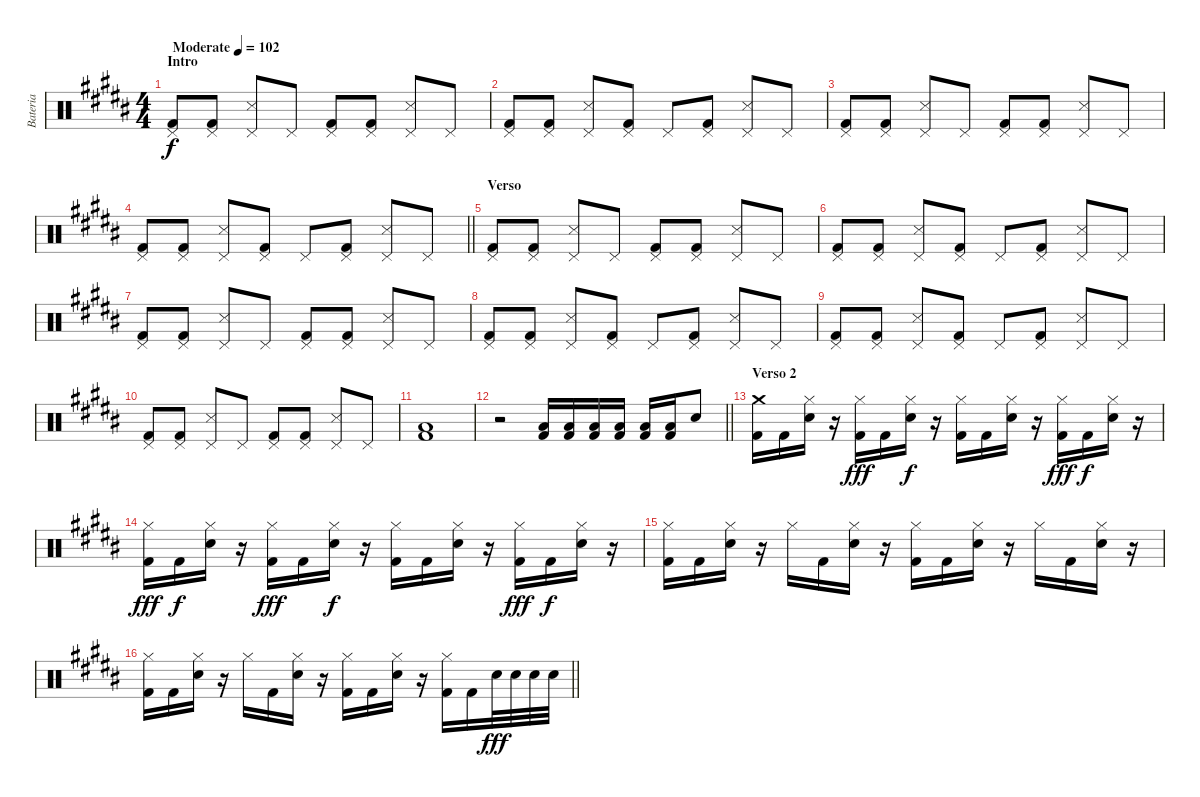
\track ("Bateria" "Bateria") {instrument percussion}
\staff {score}
\articulation defaults
\ts (4 4)
\section ("" "Intro")
\tempo (102 "Moderate")
\clef neutral
\ks b
("Pedal Hi-Hat (hit)" "Kick (hit) 2").8{dy f} ("Pedal Hi-Hat (hit)" "Kick (hit) 2").8 ("Pedal Hi-Hat (hit)" "Snare (side stick) 3").8 "Pedal Hi-Hat (hit)".8 ("Pedal Hi-Hat (hit)" "Kick (hit) 2").8 ("Pedal Hi-Hat (hit)" "Kick (hit) 2").8 ("Pedal Hi-Hat (hit)" "Snare (side stick) 3").8 "Pedal Hi-Hat (hit)".8 |
("Pedal Hi-Hat (hit)" "Kick (hit) 2").8 ("Pedal Hi-Hat (hit)" "Kick (hit) 2").8 ("Pedal Hi-Hat (hit)" "Snare (side stick) 3").8 ("Pedal Hi-Hat (hit)" "Kick (hit) 2").8 "Pedal Hi-Hat (hit)".8 ("Pedal Hi-Hat (hit)" "Kick (hit) 2").8 ("Pedal Hi-Hat (hit)" "Snare (side stick) 3").8 "Pedal Hi-Hat (hit)".8 |
("Pedal Hi-Hat (hit)" "Kick (hit) 2").8 ("Pedal Hi-Hat (hit)" "Kick (hit) 2").8 ("Pedal Hi-Hat (hit)" "Snare (side stick) 3").8 "Pedal Hi-Hat (hit)".8 ("Pedal Hi-Hat (hit)" "Kick (hit) 2").8 ("Pedal Hi-Hat (hit)" "Kick (hit) 2").8 ("Pedal Hi-Hat (hit)" "Snare (side stick) 3").8 "Pedal Hi-Hat (hit)".8 |
\barLineRight lightlight
("Pedal Hi-Hat (hit)" "Kick (hit) 2").8 ("Pedal Hi-Hat (hit)" "Kick (hit) 2").8 ("Pedal Hi-Hat (hit)" "Snare (side stick) 3").8 ("Pedal Hi-Hat (hit)" "Kick (hit) 2").8 "Pedal Hi-Hat (hit)".8 ("Pedal Hi-Hat (hit)" "Kick (hit) 2").8 ("Pedal Hi-Hat (hit)" "Snare (side stick) 3").8 "Pedal Hi-Hat (hit)".8 |
\section ("" "Verso")
("Pedal Hi-Hat (hit)" "Kick (hit) 2").8 ("Pedal Hi-Hat (hit)" "Kick (hit) 2").8 ("Pedal Hi-Hat (hit)" "Snare (side stick) 3").8 "Pedal Hi-Hat (hit)".8 ("Pedal Hi-Hat (hit)" "Kick (hit) 2").8 ("Pedal Hi-Hat (hit)" "Kick (hit) 2").8 ("Pedal Hi-Hat (hit)" "Snare (side stick) 3").8 "Pedal Hi-Hat (hit)".8 |
("Pedal Hi-Hat (hit)" "Kick (hit) 2").8 ("Pedal Hi-Hat (hit)" "Kick (hit) 2").8 ("Pedal Hi-Hat (hit)" "Snare (side stick) 3").8 ("Pedal Hi-Hat (hit)" "Kick (hit) 2").8 "Pedal Hi-Hat (hit)".8 ("Pedal Hi-Hat (hit)" "Kick (hit) 2").8 ("Pedal Hi-Hat (hit)" "Snare (side stick) 3").8 "Pedal Hi-Hat (hit)".8 |
("Pedal Hi-Hat (hit)" "Kick (hit) 2").8 ("Pedal Hi-Hat (hit)" "Kick (hit) 2").8 ("Pedal Hi-Hat (hit)" "Snare (side stick) 3").8 "Pedal Hi-Hat (hit)".8 ("Pedal Hi-Hat (hit)" "Kick (hit) 2").8 ("Pedal Hi-Hat (hit)" "Kick (hit) 2").8 ("Pedal Hi-Hat (hit)" "Snare (side stick) 3").8 "Pedal Hi-Hat (hit)".8 |
("Pedal Hi-Hat (hit)" "Kick (hit) 2").8 ("Pedal Hi-Hat (hit)" "Kick (hit) 2").8 ("Pedal Hi-Hat (hit)" "Snare (side stick) 3").8 ("Pedal Hi-Hat (hit)" "Kick (hit) 2").8 "Pedal Hi-Hat (hit)".8 ("Pedal Hi-Hat (hit)" "Kick (hit) 2").8 ("Pedal Hi-Hat (hit)" "Snare (side stick) 3").8 "Pedal Hi-Hat (hit)".8 |
("Pedal Hi-Hat (hit)" "Kick (hit) 2").8 ("Pedal Hi-Hat (hit)" "Kick (hit) 2").8 ("Pedal Hi-Hat (hit)" "Snare (side stick) 3").8 ("Pedal Hi-Hat (hit)" "Kick (hit) 2").8 "Pedal Hi-Hat (hit)".8 ("Pedal Hi-Hat (hit)" "Kick (hit) 2").8 ("Pedal Hi-Hat (hit)" "Snare (side stick) 3").8 "Pedal Hi-Hat (hit)".8 |
("Pedal Hi-Hat (hit)" "Kick (hit) 2").8 ("Pedal Hi-Hat (hit)" "Kick (hit) 2").8 ("Pedal Hi-Hat (hit)" "Snare (side stick) 3").8 "Pedal Hi-Hat (hit)".8 ("Pedal Hi-Hat (hit)" "Kick (hit) 2").8 ("Pedal Hi-Hat (hit)" "Kick (hit) 2").8 ("Pedal Hi-Hat (hit)" "Snare (side stick) 3").8 "Pedal Hi-Hat (hit)".8 |
("Low Floor Tom (hit)" "Kick (hit) 2").1 |
\barLineRight lightlight
r.2 ("Low Floor Tom (hit)" "Kick (hit) 2").16 ("Low Floor Tom (hit)" "Kick (hit) 2").16 ("Low Floor Tom (hit)" "Kick (hit) 2").16 ("Low Floor Tom (hit)" "Kick (hit) 2").16 ("Low Floor Tom (hit)" "Kick (hit) 2").16 ("Low Floor Tom (hit)" "Kick (hit) 2").16 "Snare (hit) 2".8 |
\section ("" "Verso 2")
("Crash medium (hit)" "Kick (hit) 2").16 "Kick (hit) 2".16 ("Hi-Hat (closed)" "Electric Snare (hit)").16 r.16 ("Hi-Hat (closed)" "Kick (hit) 2").16{dy fff} "Kick (hit) 2".16 ("Hi-Hat (closed)" "Electric Snare (hit)").16{dy f} r.16 ("Hi-Hat (closed)" "Kick (hit) 2").16 "Kick (hit) 2".16 ("Hi-Hat (closed)" "Electric Snare (hit)").16 r.16 ("Hi-Hat (closed)" "Kick (hit) 2").16{dy fff} "Kick (hit) 2".16{dy f} ("Hi-Hat (closed)" "Electric Snare (hit)").16 r.16 |
("Hi-Hat (closed)" "Kick (hit) 2").16{dy fff} "Kick (hit) 2".16{dy f} ("Hi-Hat (closed)" "Electric Snare (hit)").16 r.16 ("Hi-Hat (closed)" "Kick (hit) 2").16{dy fff} "Kick (hit) 2".16 ("Hi-Hat (closed)" "Electric Snare (hit)").16{dy f} r.16 ("Hi-Hat (closed)" "Kick (hit) 2").16 "Kick (hit) 2".16 ("Hi-Hat (closed)" "Electric Snare (hit)").16 r.16 ("Hi-Hat (closed)" "Kick (hit) 2").16{dy fff} "Kick (hit) 2".16{dy f} ("Hi-Hat (closed)" "Electric Snare (hit)").16 r.16 |
("Hi-Hat (closed)" "Kick (hit) 2").16 "Kick (hit) 2".16 ("Hi-Hat (closed)" "Electric Snare (hit)").16 r.16 "Hi-Hat (closed)".16 "Kick (hit) 2".16 ("Hi-Hat (closed)" "Electric Snare (hit)").16 r.16 ("Hi-Hat (closed)" "Kick (hit) 2").16 "Kick (hit) 2".16 ("Hi-Hat (closed)" "Electric Snare (hit)").16 r.16 "Hi-Hat (closed)".16 "Kick (hit) 2".16 ("Hi-Hat (closed)" "Electric Snare (hit)").16 r.16 |
\barLineRight lightlight
("Hi-Hat (closed)" "Kick (hit) 2").16 "Kick (hit) 2".16 ("Hi-Hat (closed)" "Electric Snare (hit)").16 r.16 "Hi-Hat (closed)".16 "Kick (hit) 2".16 ("Hi-Hat (closed)" "Electric Snare (hit)").16 r.16 ("Hi-Hat (closed)" "Kick (hit) 2").16 "Kick (hit) 2".16 ("Hi-Hat (closed)" "Electric Snare (hit)").16 r.16 ("Hi-Hat (closed)" "Kick (hit) 2").16 "Kick (hit) 2".16 "Electric Snare (hit)".32{dy fff} "Electric Snare (hit)".32 "Electric Snare (hit)".32 "Electric Snare (hit)".32
